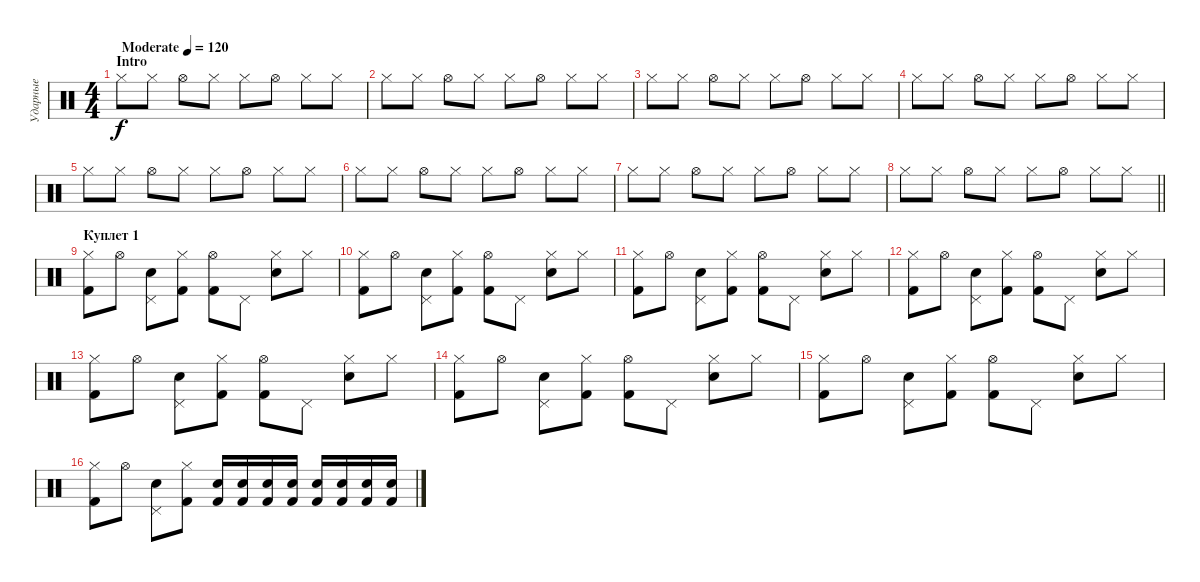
\track ("Ударные" "Ударные") {instrument percussion}
\staff {score}
\articulation defaults
\ts (4 4)
\section ("" "Intro")
\tempo (120 "Moderate")
\clef neutral
\ks c "Hi-Hat (closed)".8{dy f} "Hi-Hat (closed)".8 "Hi-Hat (open)".8 "Hi-Hat (closed)".8 "Hi-Hat (closed)".8 "Hi-Hat (open)".8 "Hi-Hat (closed)".8 "Hi-Hat (closed)".8
|
"Hi-Hat (closed)".8 "Hi-Hat (closed)".8 "Hi-Hat (open)".8 "Hi-Hat (closed)".8 "Hi-Hat (closed)".8 "Hi-Hat (open)".8 "Hi-Hat (closed)".8 "Hi-Hat (closed)".8 |
"Hi-Hat (closed)".8 "Hi-Hat (closed)".8 "Hi-Hat (open)".8 "Hi-Hat (closed)".8 "Hi-Hat (closed)".8 "Hi-Hat (open)".8 "Hi-Hat (closed)".8 "Hi-Hat (closed)".8 |
"Hi-Hat (closed)".8 "Hi-Hat (closed)".8 "Hi-Hat (open)".8 "Hi-Hat (closed)".8 "Hi-Hat (closed)".8 "Hi-Hat (open)".8 "Hi-Hat (closed)".8 "Hi-Hat (closed)".8 |
"Hi-Hat (closed)".8 "Hi-Hat (closed)".8 "Hi-Hat (open)".8 "Hi-Hat (closed)".8 "Hi-Hat (closed)".8 "Hi-Hat (open)".8 "Hi-Hat (closed)".8 "Hi-Hat (closed)".8 |
"Hi-Hat (closed)".8 "Hi-Hat (closed)".8 "Hi-Hat (open)".8 "Hi-Hat (closed)".8 "Hi-Hat (closed)".8 "Hi-Hat (open)".8 "Hi-Hat (closed)".8 "Hi-Hat (closed)".8 |
"Hi-Hat (closed)".8 "Hi-Hat (closed)".8 "Hi-Hat (open)".8 "Hi-Hat (closed)".8 "Hi-Hat (closed)".8 "Hi-Hat (open)".8 "Hi-Hat (closed)".8 "Hi-Hat (closed)".8 |
\barLineRight lightlight "Hi-Hat (closed)".8 "Hi-Hat (closed)".8 "Hi-Hat (open)".8 "Hi-Hat (closed)".8 "Hi-Hat (closed)".8 "Hi-Hat (open)".8 "Hi-Hat (closed)".8 "Hi-Hat (closed)".8
|
\section ("" "Куплет 1")
("Hi-Hat (closed)" "Kick (hit) 2").8 "Hi-Hat (open)".8 ("Pedal Hi-Hat (hit)" "Snare (hit) 2").8 ("Hi-Hat (closed)" "Kick (hit) 2").8 ("Hi-Hat (open)" "Kick (hit) 2").8 "Pedal Hi-Hat (hit)".8 ("Hi-Hat (closed)" "Snare (hit) 2").8 "Hi-Hat (closed)".8 |
("Hi-Hat (closed)" "Kick (hit) 2").8 "Hi-Hat (open)".8 ("Pedal Hi-Hat (hit)" "Snare (hit) 2").8 ("Hi-Hat (closed)" "Kick (hit) 2").8 ("Hi-Hat (open)" "Kick (hit) 2").8 "Pedal Hi-Hat (hit)".8 ("Hi-Hat (closed)" "Snare (hit) 2").8 "Hi-Hat (closed)".8 |
("Hi-Hat (closed)" "Kick (hit) 2").8 "Hi-Hat (open)".8 ("Pedal Hi-Hat (hit)" "Snare (hit) 2").8 ("Hi-Hat (closed)" "Kick (hit) 2").8 ("Hi-Hat (open)" "Kick (hit) 2").8 "Pedal Hi-Hat (hit)".8 ("Hi-Hat (closed)" "Snare (hit) 2").8 "Hi-Hat (closed)".8 |
("Hi-Hat (closed)" "Kick (hit) 2").8 "Hi-Hat (open)".8 ("Pedal Hi-Hat (hit)" "Snare (hit) 2").8 ("Hi-Hat (closed)" "Kick (hit) 2").8 ("Hi-Hat (open)" "Kick (hit) 2").8 "Pedal Hi-Hat (hit)".8 ("Hi-Hat (closed)" "Snare (hit) 2").8 "Hi-Hat (closed)".8 |
("Hi-Hat (closed)" "Kick (hit) 2").8 "Hi-Hat (open)".8 ("Pedal Hi-Hat (hit)" "Snare (hit) 2").8 ("Hi-Hat (closed)" "Kick (hit) 2").8 ("Hi-Hat (open)" "Kick (hit) 2").8 "Pedal Hi-Hat (hit)".8 ("Hi-Hat (closed)" "Snare (hit) 2").8 "Hi-Hat (closed)".8 |
("Hi-Hat (closed)" "Kick (hit) 2").8 "Hi-Hat (open)".8 ("Pedal Hi-Hat (hit)" "Snare (hit) 2").8 ("Hi-Hat (closed)" "Kick (hit) 2").8 ("Hi-Hat (open)" "Kick (hit) 2").8 "Pedal Hi-Hat (hit)".8 ("Hi-Hat (closed)" "Snare (hit) 2").8 "Hi-Hat (closed)".8 |
("Hi-Hat (closed)" "Kick (hit) 2").8 "Hi-Hat (open)".8 ("Pedal Hi-Hat (hit)" "Snare (hit) 2").8 ("Hi-Hat (closed)" "Kick (hit) 2").8 ("Hi-Hat (open)" "Kick (hit) 2").8 "Pedal Hi-Hat (hit)".8 ("Hi-Hat (closed)" "Snare (hit) 2").8 "Hi-Hat (closed)".8 |
("Hi-Hat (closed)" "Kick (hit) 2").8 "Hi-Hat (open)".8 ("Pedal Hi-Hat (hit)" "Snare (hit) 2").8 ("Hi-Hat (closed)" "Kick (hit) 2").8 ("Snare (hit) 2" "Kick (hit) 2").16 ("Snare (hit) 2" "Kick (hit) 2").16 ("Snare (hit) 2" "Kick (hit) 2").16 ("Snare (hit) 2" "Kick (hit) 2").16 ("Snare (hit) 2" "Kick (hit) 2").16 ("Snare (hit) 2" "Kick (hit) 2").16 ("Snare (hit) 2" "Kick (hit) 2").16 ("Snare (hit) 2" "Kick (hit) 2").16
